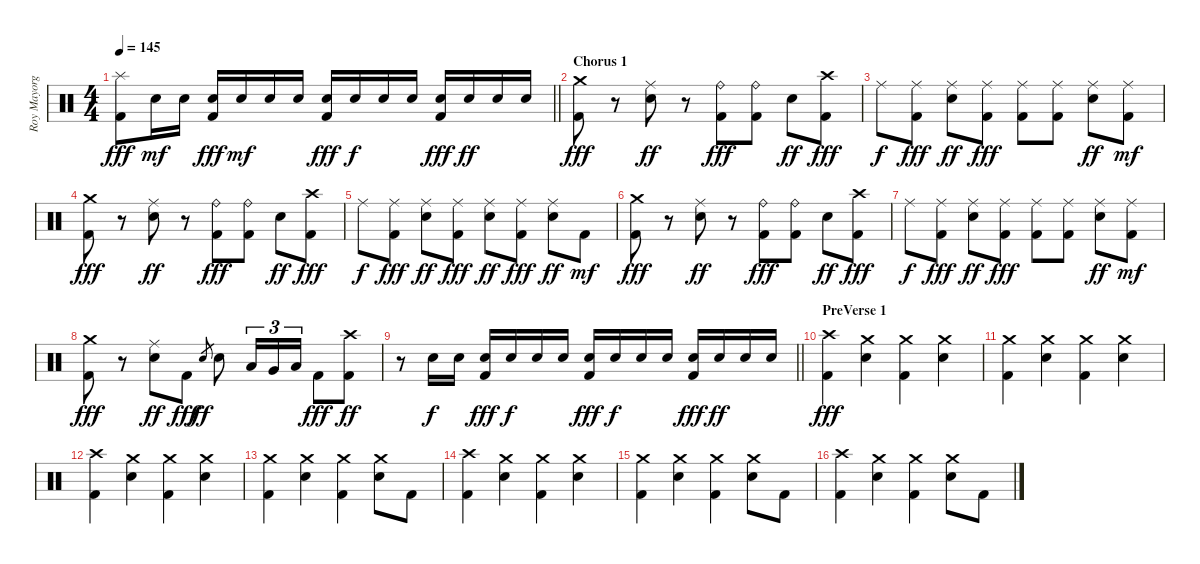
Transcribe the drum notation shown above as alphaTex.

\track ("Roy Mayorga" "Roy Mayorg") {instrument percussion}
\staff {score}
\articulation defaults
\ts (4 4)
\tempo 145
\clef neutral
\barLineRight lightlight
\ks c
("Splash (hit)" "Kick (hit) 2").8{dy fff} "Electric Snare (hit)".16{dy mf} "Electric Snare (hit)".16 ("Electric Snare (hit)" "Kick (hit) 2").16{dy fff} "Electric Snare (hit)".16{dy mf} "Electric Snare (hit)".16 "Electric Snare (hit)".16 ("Electric Snare (hit)" "Kick (hit) 2").16{dy fff} "Electric Snare (hit)".16{dy f} "Electric Snare (hit)".16 "Electric Snare (hit)".16 ("Electric Snare (hit)" "Kick (hit) 2").16{dy fff} "Electric Snare (hit)".16{dy ff} "Electric Snare (hit)".16 "Electric Snare (hit)".16 |
\section ("" "Chorus 1")
("Crash medium (hit)" "Kick (hit) 2").8{dy fff} r.8 ("Ride (middle)" "Electric Snare (hit)").8{dy ff} r.8 ("Ride (bell)" "Kick (hit) 2").8{dy fff} ("Ride (bell)" "Kick (hit) 2").8 "Electric Snare (hit)".8{dy ff} ("Crash high (hit)" "Kick (hit) 2").8{dy fff} |
"Ride (middle)".8{dy f} ("Ride (middle)" "Kick (hit) 2").8{dy fff} ("Ride (middle)" "Electric Snare (hit)").8{dy ff} ("Ride (middle)" "Kick (hit) 2").8{dy fff} ("Ride (middle)" "Kick (hit) 2").8 ("Ride (middle)" "Kick (hit) 2").8 ("Ride (middle)" "Electric Snare (hit)").8{dy ff} ("Ride (middle)" "Kick (hit) 2").8{dy mf} |
("Crash medium (hit)" "Kick (hit) 2").8{dy fff} r.8 ("Ride (middle)" "Electric Snare (hit)").8{dy ff} r.8 ("Ride (bell)" "Kick (hit) 2").8{dy fff} ("Ride (bell)" "Kick (hit) 2").8 "Electric Snare (hit)".8{dy ff} ("Crash high (hit)" "Kick (hit) 2").8{dy fff} |
"Ride (middle)".8{dy f} ("Ride (middle)" "Kick (hit) 2").8{dy fff} ("Ride (middle)" "Electric Snare (hit)").8{dy ff} ("Ride (middle)" "Kick (hit) 2").8{dy fff} ("Ride (middle)" "Electric Snare (hit)").8{dy ff} ("Ride (middle)" "Kick (hit) 2").8{dy fff} ("Ride (middle)" "Electric Snare (hit)").8{dy ff} "Kick (hit) 2".8{dy mf} |
("Crash medium (hit)" "Kick (hit) 2").8{dy fff} r.8 ("Ride (middle)" "Electric Snare (hit)").8{dy ff} r.8 ("Ride (bell)" "Kick (hit) 2").8{dy fff} ("Ride (bell)" "Kick (hit) 2").8 "Electric Snare (hit)".8{dy ff} ("Crash high (hit)" "Kick (hit) 2").8{dy fff} |
"Ride (middle)".8{dy f} ("Ride (middle)" "Kick (hit) 2").8{dy fff} ("Ride (middle)" "Electric Snare (hit)").8{dy ff} ("Ride (middle)" "Kick (hit) 2").8{dy fff} ("Ride (middle)" "Kick (hit) 2").8 ("Ride (middle)" "Kick (hit) 2").8 ("Ride (middle)" "Electric Snare (hit)").8{dy ff} ("Ride (middle)" "Kick (hit) 2").8{dy mf} |
("Crash medium (hit)" "Kick (hit) 2").8{dy fff} r.8 ("Ride (middle)" "Electric Snare (hit)").8{dy ff} "Kick (hit) 2".8{dy fff} "Electric Snare (hit)".8{gr dy ff} "Electric Snare (hit)".8 "Low Tom (hit)".16{tu (3 2)} "Very Low Tom (hit)".16{tu (3 2)} "Low Floor Tom (hit)".16{tu (3 2)} "Kick (hit) 2".8{dy fff} ("Crash high (hit)" "Kick (hit) 2").8{dy ff} |
\barLineRight lightlight
r.8 "Electric Snare (hit)".16{dy f} "Electric Snare (hit)".16 ("Electric Snare (hit)" "Kick (hit) 2").16{dy fff} "Electric Snare (hit)".16{dy f} "Electric Snare (hit)".16 "Electric Snare (hit)".16 ("Electric Snare (hit)" "Kick (hit) 2").16{dy fff} "Electric Snare (hit)".16{dy f} "Electric Snare (hit)".16 "Electric Snare (hit)".16 ("Electric Snare (hit)" "Kick (hit) 2").16{dy fff} "Electric Snare (hit)".16{dy ff} "Electric Snare (hit)".16 "Electric Snare (hit)".16 |
\section ("" "PreVerse 1")
("Crash high (hit)" "Kick (hit) 2").4{dy fff} ("Crash medium (hit)" "Electric Snare (hit)").4 ("Crash medium (hit)" "Kick (hit) 2").4 ("Crash medium (hit)" "Electric Snare (hit)").4 |
("Crash medium (hit)" "Kick (hit) 2").4 ("Crash medium (hit)" "Electric Snare (hit)").4 ("Crash medium (hit)" "Kick (hit) 2").4 ("Crash medium (hit)" "Electric Snare (hit)").4 |
("Crash high (hit)" "Kick (hit) 2").4 ("Crash medium (hit)" "Electric Snare (hit)").4 ("Crash medium (hit)" "Kick (hit) 2").4 ("Crash medium (hit)" "Electric Snare (hit)").4 |
("Crash medium (hit)" "Kick (hit) 2").4 ("Crash medium (hit)" "Electric Snare (hit)").4 ("Crash medium (hit)" "Kick (hit) 2").4 ("Crash medium (hit)" "Electric Snare (hit)").8 "Kick (hit) 2".8 |
("Crash high (hit)" "Kick (hit) 2").4 ("Crash medium (hit)" "Electric Snare (hit)").4 ("Crash medium (hit)" "Kick (hit) 2").4 ("Crash medium (hit)" "Electric Snare (hit)").4 |
("Crash medium (hit)" "Kick (hit) 2").4 ("Crash medium (hit)" "Electric Snare (hit)").4 ("Crash medium (hit)" "Kick (hit) 2").4 ("Crash medium (hit)" "Electric Snare (hit)").8 "Kick (hit) 2".8 |
("Crash high (hit)" "Kick (hit) 2").4 ("Crash medium (hit)" "Electric Snare (hit)").4 ("Crash medium (hit)" "Kick (hit) 2").4 ("Crash medium (hit)" "Electric Snare (hit)").8 "Kick (hit) 2".8
